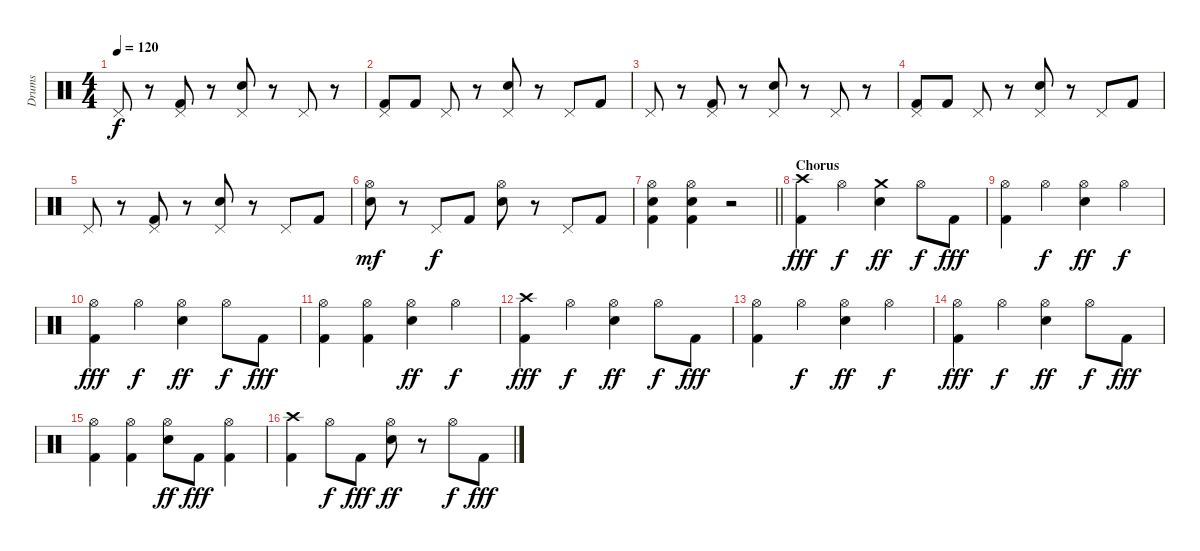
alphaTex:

\track ("Drums" "Drums") {instrument percussion}
\staff {score}
\articulation defaults
\ts (4 4)
\tempo 120
\clef neutral
\ks c "Pedal Hi-Hat (hit)".8{dy f}
r.8 ("Pedal Hi-Hat (hit)" "Kick (hit) 2").8 r.8 ("Pedal Hi-Hat (hit)" "Snare (hit) 2").8 r.8 "Pedal Hi-Hat (hit)".8 r.8 |
("Pedal Hi-Hat (hit)" "Kick (hit) 2").8 "Kick (hit) 2".8 "Pedal Hi-Hat (hit)".8 r.8 ("Pedal Hi-Hat (hit)" "Snare (hit) 2").8 r.8 "Pedal Hi-Hat (hit)".8 "Kick (hit) 2".8 |
"Pedal Hi-Hat (hit)".8 r.8 ("Pedal Hi-Hat (hit)" "Kick (hit) 2").8 r.8 ("Pedal Hi-Hat (hit)" "Snare (hit) 2").8 r.8 "Pedal Hi-Hat (hit)".8 r.8 |
("Pedal Hi-Hat (hit)" "Kick (hit) 2").8 "Kick (hit) 2".8 "Pedal Hi-Hat (hit)".8 r.8 ("Pedal Hi-Hat (hit)" "Snare (hit) 2").8 r.8 "Pedal Hi-Hat (hit)".8 "Kick (hit) 2".8 |
"Pedal Hi-Hat (hit)".8 r.8 ("Pedal Hi-Hat (hit)" "Kick (hit) 2").8 r.8 ("Pedal Hi-Hat (hit)" "Snare (hit) 2").8 r.8 "Pedal Hi-Hat (hit)".8 "Kick (hit) 2".8 |
("Hi-Hat (open)" "Snare (hit) 2").8{dy mf} r.8 "Pedal Hi-Hat (hit)".8{dy f} "Kick (hit) 2".8 ("Hi-Hat (open)" "Snare (hit) 2").8 r.8 "Pedal Hi-Hat (hit)".8 "Kick (hit) 2".8 |
\barLineRight lightlight
("Hi-Hat (open)" "Snare (hit) 2" "Kick (hit) 2").4 ("Hi-Hat (open)" "Snare (hit) 2" "Kick (hit) 2").4 r.2 |
\section ("" "Chorus")
("Crash high (hit)" "Kick (hit) 2").4{dy fff} "Hi-Hat (open)".4{dy f} ("Crash medium (hit)" "Snare (hit) 2").4{dy ff} "Hi-Hat (open)".8{dy f} "Kick (hit) 2".8{dy fff} |
("Hi-Hat (open)" "Kick (hit) 2").4 "Hi-Hat (open)".4{dy f} ("Hi-Hat (open)" "Snare (hit) 2").4{dy ff} "Hi-Hat (open)".4{dy f} |
("Hi-Hat (open)" "Kick (hit) 2").4{dy fff} "Hi-Hat (open)".4{dy f} ("Hi-Hat (open)" "Snare (hit) 2").4{dy ff} "Hi-Hat (open)".8{dy f} "Kick (hit) 2".8{dy fff} |
("Hi-Hat (open)" "Kick (hit) 2").4 ("Hi-Hat (open)" "Kick (hit) 2").4 ("Hi-Hat (open)" "Snare (hit) 2").4{dy ff} "Hi-Hat (open)".4{dy f} |
("Crash high (hit)" "Kick (hit) 2").4{dy fff} "Hi-Hat (open)".4{dy f} ("Hi-Hat (open)" "Snare (hit) 2").4{dy ff} "Hi-Hat (open)".8{dy f} "Kick (hit) 2".8{dy fff} |
("Hi-Hat (open)" "Kick (hit) 2").4 "Hi-Hat (open)".4{dy f} ("Hi-Hat (open)" "Snare (hit) 2").4{dy ff} "Hi-Hat (open)".4{dy f} |
("Hi-Hat (open)" "Kick (hit) 2").4{dy fff} "Hi-Hat (open)".4{dy f} ("Hi-Hat (open)" "Snare (hit) 2").4{dy ff} "Hi-Hat (open)".8{dy f} "Kick (hit) 2".8{dy fff} |
("Hi-Hat (open)" "Kick (hit) 2").4 ("Hi-Hat (open)" "Kick (hit) 2").4 ("Hi-Hat (open)" "Snare (hit) 2").8{dy ff} "Kick (hit) 2".8{dy fff} ("Hi-Hat (open)" "Kick (hit) 2").4 |
("Crash high (hit)" "Kick (hit) 2").4 "Hi-Hat (open)".8{dy f} "Kick (hit) 2".8{dy fff} ("Hi-Hat (open)" "Snare (hit) 2").8{dy ff} r.8 "Hi-Hat (open)".8{dy f} "Kick (hit) 2".8{dy fff}
